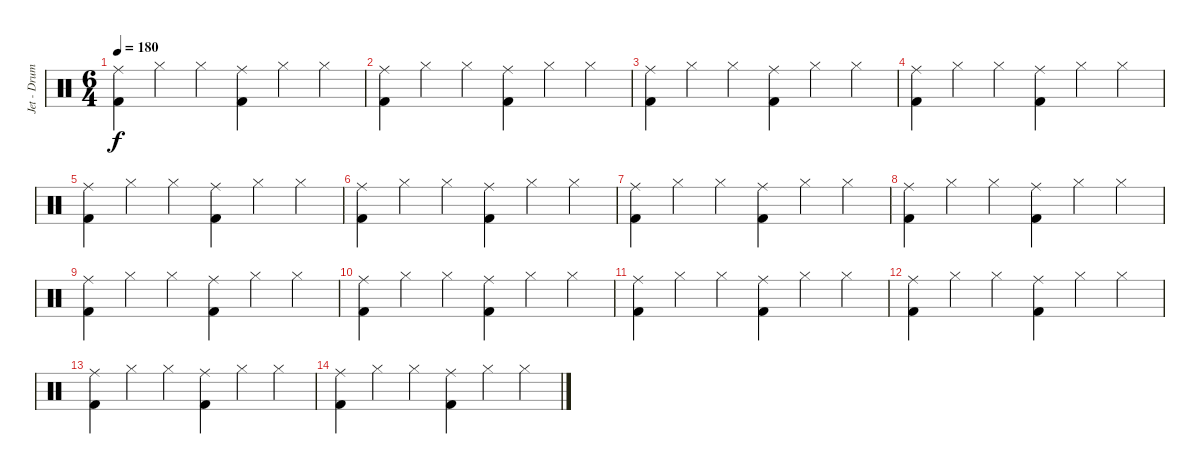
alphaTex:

\track ("Jet - Drums" "Jet - Drum") {instrument percussion}
\staff {score}
\articulation defaults
\ts (6 4)
\tempo 180
\clef neutral
\ks c
("Ride (middle)" "Kick (hit) 2").4{dy f} "Hi-Hat (closed)".4 "Hi-Hat (closed)".4 ("Ride (middle)" "Kick (hit) 2").4 "Hi-Hat (closed)".4 "Hi-Hat (closed)".4 |
("Ride (middle)" "Kick (hit) 2").4 "Hi-Hat (closed)".4 "Hi-Hat (closed)".4 ("Ride (middle)" "Kick (hit) 2").4 "Hi-Hat (closed)".4 "Hi-Hat (closed)".4 |
("Ride (middle)" "Kick (hit) 2").4 "Hi-Hat (closed)".4 "Hi-Hat (closed)".4 ("Ride (middle)" "Kick (hit) 2").4 "Hi-Hat (closed)".4 "Hi-Hat (closed)".4 |
("Ride (middle)" "Kick (hit) 2").4 "Hi-Hat (closed)".4 "Hi-Hat (closed)".4 ("Ride (middle)" "Kick (hit) 2").4 "Hi-Hat (closed)".4 "Hi-Hat (closed)".4 |
("Ride (middle)" "Kick (hit) 2").4 "Hi-Hat (closed)".4 "Hi-Hat (closed)".4 ("Ride (middle)" "Kick (hit) 2").4 "Hi-Hat (closed)".4 "Hi-Hat (closed)".4 |
("Ride (middle)" "Kick (hit) 2").4 "Hi-Hat (closed)".4 "Hi-Hat (closed)".4 ("Ride (middle)" "Kick (hit) 2").4 "Hi-Hat (closed)".4 "Hi-Hat (closed)".4 |
("Ride (middle)" "Kick (hit) 2").4 "Hi-Hat (closed)".4 "Hi-Hat (closed)".4 ("Ride (middle)" "Kick (hit) 2").4 "Hi-Hat (closed)".4 "Hi-Hat (closed)".4 |
("Ride (middle)" "Kick (hit) 2").4 "Hi-Hat (closed)".4 "Hi-Hat (closed)".4 ("Ride (middle)" "Kick (hit) 2").4 "Hi-Hat (closed)".4 "Hi-Hat (closed)".4 |
("Ride (middle)" "Kick (hit) 2").4 "Hi-Hat (closed)".4 "Hi-Hat (closed)".4 ("Ride (middle)" "Kick (hit) 2").4 "Hi-Hat (closed)".4 "Hi-Hat (closed)".4 |
("Ride (middle)" "Kick (hit) 2").4 "Hi-Hat (closed)".4 "Hi-Hat (closed)".4 ("Ride (middle)" "Kick (hit) 2").4 "Hi-Hat (closed)".4 "Hi-Hat (closed)".4 |
("Ride (middle)" "Kick (hit) 2").4 "Hi-Hat (closed)".4 "Hi-Hat (closed)".4 ("Ride (middle)" "Kick (hit) 2").4 "Hi-Hat (closed)".4 "Hi-Hat (closed)".4 |
("Ride (middle)" "Kick (hit) 2").4 "Hi-Hat (closed)".4 "Hi-Hat (closed)".4 ("Ride (middle)" "Kick (hit) 2").4 "Hi-Hat (closed)".4 "Hi-Hat (closed)".4 |
("Ride (middle)" "Kick (hit) 2").4 "Hi-Hat (closed)".4 "Hi-Hat (closed)".4 ("Ride (middle)" "Kick (hit) 2").4 "Hi-Hat (closed)".4 "Hi-Hat (closed)".4 |
("Ride (middle)" "Kick (hit) 2").4 "Hi-Hat (closed)".4 "Hi-Hat (closed)".4 ("Ride (middle)" "Kick (hit) 2").4 "Hi-Hat (closed)".4 "Hi-Hat (closed)".4
